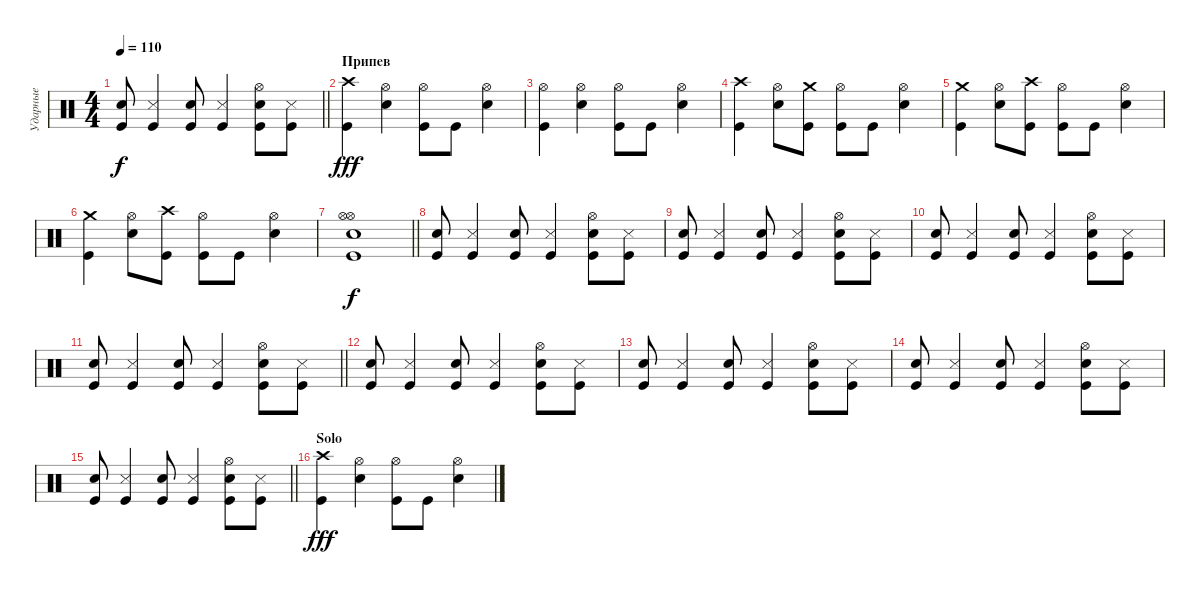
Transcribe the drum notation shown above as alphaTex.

\track ("Ударные" "Ударные") {instrument percussion}
\staff {score}
\articulation defaults
\ts (4 4)
\tempo 110
\clef neutral
\barLineRight lightlight
\ks c
("Snare (hit) 2" "Kick (hit)").8{dy f} ("Kick (hit)" "Snare (side stick) 3").4 ("Kick (hit)" "Snare (hit) 2").8 ("Kick (hit)" "Snare (side stick) 3").4 ("Snare (hit) 2" "Kick (hit)" "Hi-Hat (open)").8 ("Kick (hit)" "Snare (side stick) 3").8 |
\section ("" "Припев")
("Crash high (hit)" "Kick (hit)").4{dy fff} ("Hi-Hat (open)" "Electric Snare (hit)").4 ("Hi-Hat (open)" "Kick (hit)").8 "Kick (hit)".8 ("Hi-Hat (open)" "Electric Snare (hit)").4 |
("Hi-Hat (open)" "Kick (hit)").4 ("Hi-Hat (open)" "Electric Snare (hit)").4 ("Hi-Hat (open)" "Kick (hit)").8 "Kick (hit)".8 ("Hi-Hat (open)" "Electric Snare (hit)").4 |
("Crash high (hit)" "Kick (hit)").4 ("Hi-Hat (open)" "Electric Snare (hit)").8 ("Crash medium (hit)" "Kick (hit)").8 ("Hi-Hat (open)" "Kick (hit)").8 "Kick (hit)".8 ("Hi-Hat (open)" "Electric Snare (hit)").4 |
("Crash medium (hit)" "Kick (hit)").4 ("Hi-Hat (open)" "Electric Snare (hit)").8 ("Crash high (hit)" "Kick (hit)").8 ("Hi-Hat (open)" "Kick (hit)").8 "Kick (hit)".8 ("Hi-Hat (open)" "Electric Snare (hit)").4 |
("Crash medium (hit)" "Kick (hit)").4 ("Hi-Hat (open)" "Electric Snare (hit)").8 ("Crash high (hit)" "Kick (hit)").8 ("Hi-Hat (open)" "Kick (hit)").8 "Kick (hit)".8 ("Hi-Hat (open)" "Electric Snare (hit)").4 |
\barLineRight lightlight
("Snare (hit) 2" "Kick (hit)" "Hi-Hat (open)" "Hi-Hat (open)").1{dy f} |
\section ("" "")
("Snare (hit) 2" "Kick (hit)").8 ("Kick (hit)" "Snare (side stick) 3").4 ("Kick (hit)" "Snare (hit) 2").8 ("Kick (hit)" "Snare (side stick) 3").4 ("Snare (hit) 2" "Kick (hit)" "Hi-Hat (open)").8 ("Kick (hit)" "Snare (side stick) 3").8 |
("Snare (hit) 2" "Kick (hit)").8 ("Kick (hit)" "Snare (side stick) 3").4 ("Kick (hit)" "Snare (hit) 2").8 ("Kick (hit)" "Snare (side stick) 3").4 ("Snare (hit) 2" "Kick (hit)" "Hi-Hat (open)").8 ("Kick (hit)" "Snare (side stick) 3").8 |
("Snare (hit) 2" "Kick (hit)").8 ("Kick (hit)" "Snare (side stick) 3").4 ("Kick (hit)" "Snare (hit) 2").8 ("Kick (hit)" "Snare (side stick) 3").4 ("Snare (hit) 2" "Kick (hit)" "Hi-Hat (open)").8 ("Kick (hit)" "Snare (side stick) 3").8 |
\barLineRight lightlight
("Snare (hit) 2" "Kick (hit)").8 ("Kick (hit)" "Snare (side stick) 3").4 ("Kick (hit)" "Snare (hit) 2").8 ("Kick (hit)" "Snare (side stick) 3").4 ("Snare (hit) 2" "Kick (hit)" "Hi-Hat (open)").8 ("Kick (hit)" "Snare (side stick) 3").8 |
("Snare (hit) 2" "Kick (hit)").8 ("Kick (hit)" "Snare (side stick) 3").4 ("Kick (hit)" "Snare (hit) 2").8 ("Kick (hit)" "Snare (side stick) 3").4 ("Snare (hit) 2" "Kick (hit)" "Hi-Hat (open)").8 ("Kick (hit)" "Snare (side stick) 3").8 |
("Snare (hit) 2" "Kick (hit)").8 ("Kick (hit)" "Snare (side stick) 3").4 ("Kick (hit)" "Snare (hit) 2").8 ("Kick (hit)" "Snare (side stick) 3").4 ("Snare (hit) 2" "Kick (hit)" "Hi-Hat (open)").8 ("Kick (hit)" "Snare (side stick) 3").8 |
("Snare (hit) 2" "Kick (hit)").8 ("Kick (hit)" "Snare (side stick) 3").4 ("Kick (hit)" "Snare (hit) 2").8 ("Kick (hit)" "Snare (side stick) 3").4 ("Snare (hit) 2" "Kick (hit)" "Hi-Hat (open)").8 ("Kick (hit)" "Snare (side stick) 3").8 |
\barLineRight lightlight
("Snare (hit) 2" "Kick (hit)").8 ("Kick (hit)" "Snare (side stick) 3").4 ("Kick (hit)" "Snare (hit) 2").8 ("Kick (hit)" "Snare (side stick) 3").4 ("Snare (hit) 2" "Kick (hit)" "Hi-Hat (open)").8 ("Kick (hit)" "Snare (side stick) 3").8 |
\section ("" "Solo")
("Crash high (hit)" "Kick (hit)").4{dy fff} ("Hi-Hat (open)" "Electric Snare (hit)").4 ("Hi-Hat (open)" "Kick (hit)").8 "Kick (hit)".8 ("Hi-Hat (open)" "Electric Snare (hit)").4
